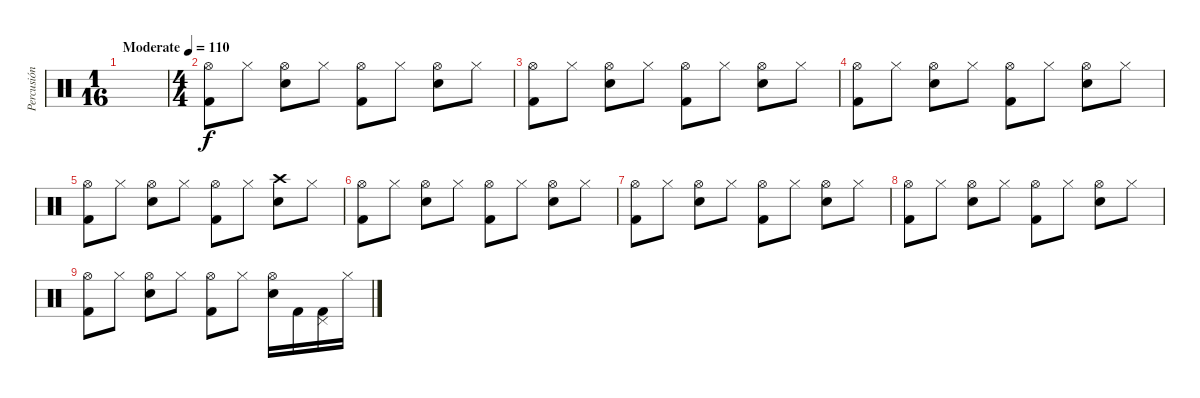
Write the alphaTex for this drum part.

\track ("Percusión" "Percusión") {instrument percussion}
\staff {score}
\articulation defaults
\ts (1 16)
\tempo (110 "Moderate")
\clef neutral
\ks c
|
\ts (4 4)
("Hi-Hat (open)" "Kick (hit) 2").8 "Hi-Hat (closed)".8 ("Hi-Hat (open)" "Electric Snare (hit)").8 "Hi-Hat (closed)".8 ("Hi-Hat (open)" "Kick (hit) 2").8 "Hi-Hat (closed)".8 ("Hi-Hat (open)" "Electric Snare (hit)").8 "Hi-Hat (closed)".8 |
("Hi-Hat (open)" "Kick (hit) 2").8 "Hi-Hat (closed)".8 ("Hi-Hat (open)" "Electric Snare (hit)").8 "Hi-Hat (closed)".8 ("Hi-Hat (open)" "Kick (hit) 2").8 "Hi-Hat (closed)".8 ("Hi-Hat (open)" "Electric Snare (hit)").8 "Hi-Hat (closed)".8 |
("Hi-Hat (open)" "Kick (hit) 2").8 "Hi-Hat (closed)".8 ("Hi-Hat (open)" "Electric Snare (hit)").8 "Hi-Hat (closed)".8 ("Hi-Hat (open)" "Kick (hit) 2").8 "Hi-Hat (closed)".8 ("Hi-Hat (open)" "Electric Snare (hit)").8 "Hi-Hat (closed)".8 |
("Hi-Hat (open)" "Kick (hit) 2").8 "Hi-Hat (closed)".8 ("Hi-Hat (open)" "Electric Snare (hit)").8 "Hi-Hat (closed)".8 ("Hi-Hat (open)" "Kick (hit) 2").8 "Hi-Hat (closed)".8 ("Crash high (hit)" "Electric Snare (hit)").8 "Hi-Hat (closed)".8 |
("Hi-Hat (open)" "Kick (hit) 2").8 "Hi-Hat (closed)".8 ("Hi-Hat (open)" "Electric Snare (hit)").8 "Hi-Hat (closed)".8 ("Hi-Hat (open)" "Kick (hit) 2").8 "Hi-Hat (closed)".8 ("Hi-Hat (open)" "Electric Snare (hit)").8 "Hi-Hat (closed)".8 |
("Hi-Hat (open)" "Kick (hit) 2").8 "Hi-Hat (closed)".8 ("Hi-Hat (open)" "Electric Snare (hit)").8 "Hi-Hat (closed)".8 ("Hi-Hat (open)" "Kick (hit) 2").8 "Hi-Hat (closed)".8 ("Hi-Hat (open)" "Electric Snare (hit)").8 "Hi-Hat (closed)".8 |
("Hi-Hat (open)" "Kick (hit) 2").8 "Hi-Hat (closed)".8 ("Hi-Hat (open)" "Electric Snare (hit)").8 "Hi-Hat (closed)".8 ("Hi-Hat (open)" "Kick (hit) 2").8 "Hi-Hat (closed)".8 ("Hi-Hat (open)" "Electric Snare (hit)").8 "Hi-Hat (closed)".8 |
("Hi-Hat (open)" "Kick (hit) 2").8 "Hi-Hat (closed)".8 ("Hi-Hat (open)" "Electric Snare (hit)").8 "Hi-Hat (closed)".8 ("Hi-Hat (open)" "Kick (hit) 2").8 "Hi-Hat (closed)".8 ("Hi-Hat (open)" "Electric Snare (hit)").16 "Kick (hit) 2".16 ("Pedal Hi-Hat (hit)" "Kick (hit) 2").16 "Hi-Hat (closed)".16
